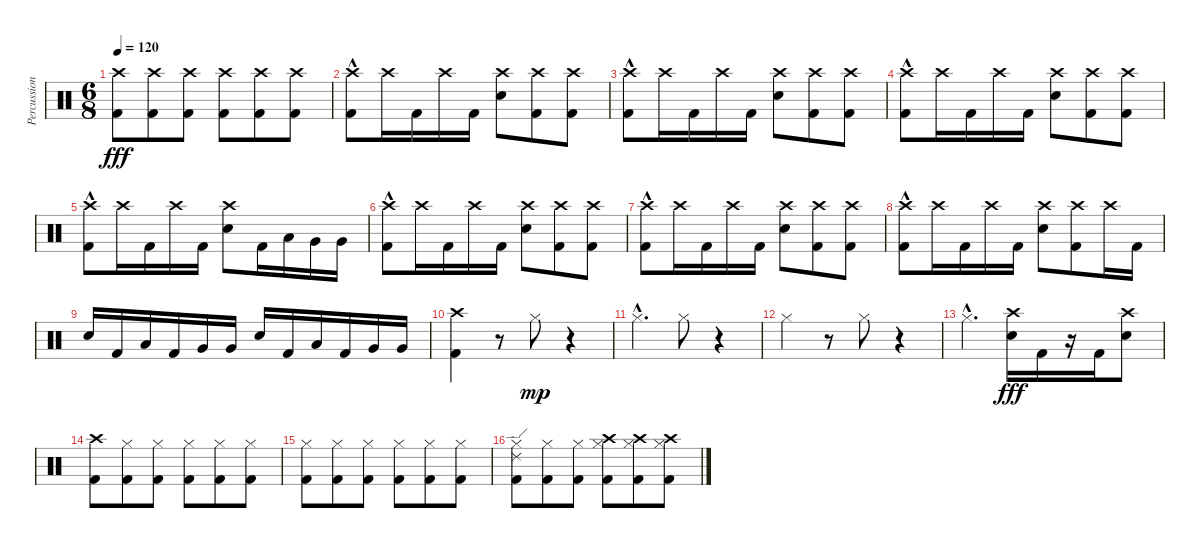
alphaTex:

\track ("Percussion" "Percussion") {instrument percussion}
\staff {score}
\articulation defaults
\ts (6 8)
\tempo 120
\clef neutral
\ks c
("Crash high (hit)" "Kick (hit) 2").8{dy fff} ("Crash high (hit)" "Kick (hit) 2").8 ("Crash high (hit)" "Kick (hit) 2").8 ("Crash high (hit)" "Kick (hit) 2").8 ("Crash high (hit)" "Kick (hit) 2").8 ("Crash high (hit)" "Kick (hit) 2").8 |
("Crash high (hit)" "Kick (hit) 2"{hac}).8 "Crash high (hit)".16 "Kick (hit) 2".16 "Crash high (hit)".16 "Kick (hit) 2".16 ("Crash high (hit)" "Electric Snare (hit)").8 ("Crash high (hit)" "Kick (hit) 2").8 ("Crash high (hit)" "Kick (hit) 2").8 |
("Crash high (hit)" "Kick (hit) 2"{hac}).8 "Crash high (hit)".16 "Kick (hit) 2".16 "Crash high (hit)".16 "Kick (hit) 2".16 ("Crash high (hit)" "Electric Snare (hit)").8 ("Crash high (hit)" "Kick (hit) 2").8 ("Crash high (hit)" "Kick (hit) 2").8 |
("Crash high (hit)" "Kick (hit) 2"{hac}).8 "Crash high (hit)".16 "Kick (hit) 2".16 "Crash high (hit)".16 "Kick (hit) 2".16 ("Crash high (hit)" "Electric Snare (hit)").8 ("Crash high (hit)" "Kick (hit) 2").8 ("Crash high (hit)" "Kick (hit) 2").8 |
("Crash high (hit)" "Kick (hit) 2"{hac}).8 "Crash high (hit)".16 "Kick (hit) 2".16 "Crash high (hit)".16 "Kick (hit) 2".16 ("Crash high (hit)" "Electric Snare (hit)").8 "Kick (hit) 2".16 "Low Tom (hit)".16 "Very Low Tom (hit)".16 "Very Low Tom (hit)".16 |
("Crash high (hit)" "Kick (hit) 2"{hac}).8 "Crash high (hit)".16 "Kick (hit) 2".16 "Crash high (hit)".16 "Kick (hit) 2".16 ("Crash high (hit)" "Electric Snare (hit)").8 ("Crash high (hit)" "Kick (hit) 2").8 ("Crash high (hit)" "Kick (hit) 2").8 |
("Crash high (hit)" "Kick (hit) 2"{hac}).8 "Crash high (hit)".16 "Kick (hit) 2".16 "Crash high (hit)".16 "Kick (hit) 2".16 ("Crash high (hit)" "Electric Snare (hit)").8 ("Crash high (hit)" "Kick (hit) 2").8 ("Crash high (hit)" "Kick (hit) 2").8 |
("Crash high (hit)" "Kick (hit) 2"{hac}).8 "Crash high (hit)".16 "Kick (hit) 2".16 "Crash high (hit)".16 "Kick (hit) 2".16 ("Crash high (hit)" "Electric Snare (hit)").8 ("Crash high (hit)" "Kick (hit) 2").8 "Crash high (hit)".16 "Kick (hit) 2".16 |
"Electric Snare (hit)".16 "Kick (hit) 2".16 "Low Tom (hit)".16 "Kick (hit) 2".16 "Very Low Tom (hit)".16 "Very Low Tom (hit)".16 "Electric Snare (hit)".16 "Kick (hit) 2".16 "Low Tom (hit)".16 "Kick (hit) 2".16 "Very Low Tom (hit)".16 "Very Low Tom (hit)".16 |
("Crash high (hit)" "Kick (hit) 2").4 r.8 "Hi-Hat (closed)".8{dy mp} r.4 |
"Hi-Hat (closed)"{hac}.4{d} "Hi-Hat (closed)".8 r.4 |
"Hi-Hat (closed)".4 r.8 "Hi-Hat (closed)".8 r.4 |
"Hi-Hat (closed)"{hac}.4{d} ("Crash high (hit)" "Electric Snare (hit)").16{dy fff} "Kick (hit) 2".16 r.16 "Kick (hit) 2".16 ("Crash high (hit)" "Electric Snare (hit)").8 |
("Crash high (hit)" "Kick (hit) 2").8 ("Hi-Hat (closed)" "Kick (hit) 2").8 ("Hi-Hat (closed)" "Kick (hit) 2").8 ("Hi-Hat (closed)" "Kick (hit) 2").8 ("Hi-Hat (closed)" "Kick (hit) 2").8 ("Hi-Hat (closed)" "Kick (hit) 2").8 |
("Hi-Hat (closed)" "Kick (hit) 2").8 ("Hi-Hat (closed)" "Kick (hit) 2").8 ("Hi-Hat (closed)" "Kick (hit) 2").8 ("Hi-Hat (closed)" "Kick (hit) 2").8 ("Hi-Hat (closed)" "Kick (hit) 2").8 ("Hi-Hat (closed)" "Kick (hit) 2").8 |
("Ride (edge) 2" "Hi-Hat (closed)" "Kick (hit) 2").8 ("Hi-Hat (closed)" "Kick (hit) 2").8 ("Hi-Hat (closed)" "Kick (hit) 2").8 ("Crash high (hit)" "Hi-Hat (closed)" "Kick (hit) 2").8 ("Crash high (hit)" "Hi-Hat (closed)" "Kick (hit) 2").8 ("Crash high (hit)" "Hi-Hat (closed)" "Kick (hit) 2").8
